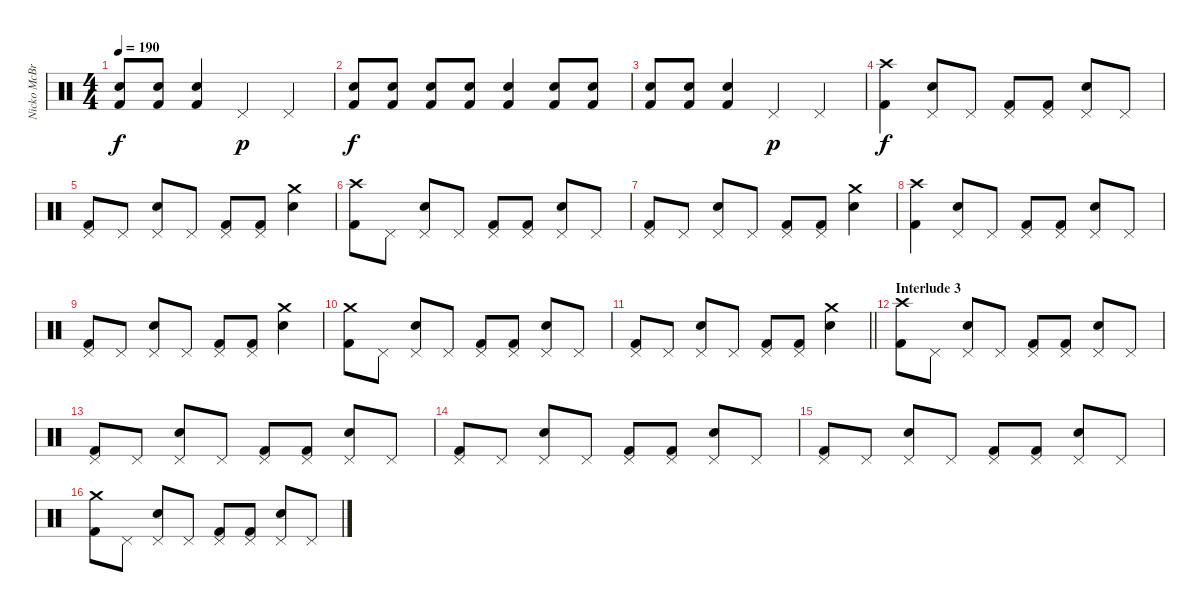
\track ("Nicko McBrain" "Nicko McBr") {instrument percussion}
\staff {score}
\articulation defaults
\ts (4 4)
\tempo 190
\clef neutral
\ks c
("Electric Snare (hit)" "Kick (hit) 2").8{dy f} ("Electric Snare (hit)" "Kick (hit) 2").8 ("Electric Snare (hit)" "Kick (hit) 2").4 "Pedal Hi-Hat (hit)".4{dy p} "Pedal Hi-Hat (hit)".4 |
("Electric Snare (hit)" "Kick (hit) 2").8{dy f} ("Electric Snare (hit)" "Kick (hit) 2").8 ("Electric Snare (hit)" "Kick (hit) 2").8 ("Electric Snare (hit)" "Kick (hit) 2").8 ("Electric Snare (hit)" "Kick (hit) 2").4 ("Electric Snare (hit)" "Kick (hit) 2").8 ("Electric Snare (hit)" "Kick (hit) 2").8 |
("Electric Snare (hit)" "Kick (hit) 2").8 ("Electric Snare (hit)" "Kick (hit) 2").8 ("Electric Snare (hit)" "Kick (hit) 2").4 "Pedal Hi-Hat (hit)".4{dy p} "Pedal Hi-Hat (hit)".4 |
("Crash high (hit)" "Kick (hit) 2").4{dy f} ("Pedal Hi-Hat (hit)" "Electric Snare (hit)").8 "Pedal Hi-Hat (hit)".8 ("Pedal Hi-Hat (hit)" "Kick (hit) 2").8 ("Pedal Hi-Hat (hit)" "Kick (hit) 2").8 ("Pedal Hi-Hat (hit)" "Electric Snare (hit)").8 "Pedal Hi-Hat (hit)".8 |
("Pedal Hi-Hat (hit)" "Kick (hit) 2").8 "Pedal Hi-Hat (hit)".8 ("Pedal Hi-Hat (hit)" "Electric Snare (hit)").8 "Pedal Hi-Hat (hit)".8 ("Pedal Hi-Hat (hit)" "Kick (hit) 2").8 ("Pedal Hi-Hat (hit)" "Kick (hit) 2").8 ("Crash medium (hit)" "Electric Snare (hit)").4 |
("Crash high (hit)" "Kick (hit) 2").8 "Pedal Hi-Hat (hit)".8 ("Pedal Hi-Hat (hit)" "Electric Snare (hit)").8 "Pedal Hi-Hat (hit)".8 ("Pedal Hi-Hat (hit)" "Kick (hit) 2").8 ("Pedal Hi-Hat (hit)" "Kick (hit) 2").8 ("Pedal Hi-Hat (hit)" "Electric Snare (hit)").8 "Pedal Hi-Hat (hit)".8 |
("Pedal Hi-Hat (hit)" "Kick (hit) 2").8 "Pedal Hi-Hat (hit)".8 ("Pedal Hi-Hat (hit)" "Electric Snare (hit)").8 "Pedal Hi-Hat (hit)".8 ("Pedal Hi-Hat (hit)" "Kick (hit) 2").8 ("Pedal Hi-Hat (hit)" "Kick (hit) 2").8 ("Crash medium (hit)" "Electric Snare (hit)").4 |
("Crash high (hit)" "Kick (hit) 2").4 ("Pedal Hi-Hat (hit)" "Electric Snare (hit)").8 "Pedal Hi-Hat (hit)".8 ("Pedal Hi-Hat (hit)" "Kick (hit) 2").8 ("Pedal Hi-Hat (hit)" "Kick (hit) 2").8 ("Pedal Hi-Hat (hit)" "Electric Snare (hit)").8 "Pedal Hi-Hat (hit)".8 |
("Pedal Hi-Hat (hit)" "Kick (hit) 2").8 "Pedal Hi-Hat (hit)".8 ("Pedal Hi-Hat (hit)" "Electric Snare (hit)").8 "Pedal Hi-Hat (hit)".8 ("Pedal Hi-Hat (hit)" "Kick (hit) 2").8 ("Pedal Hi-Hat (hit)" "Kick (hit) 2").8 ("Crash medium (hit)" "Electric Snare (hit)").4 |
("Crash medium (hit)" "Kick (hit) 2").8 "Pedal Hi-Hat (hit)".8 ("Pedal Hi-Hat (hit)" "Electric Snare (hit)").8 "Pedal Hi-Hat (hit)".8 ("Pedal Hi-Hat (hit)" "Kick (hit) 2").8 ("Pedal Hi-Hat (hit)" "Kick (hit) 2").8 ("Pedal Hi-Hat (hit)" "Electric Snare (hit)").8 "Pedal Hi-Hat (hit)".8 |
\barLineRight lightlight
("Pedal Hi-Hat (hit)" "Kick (hit) 2").8 "Pedal Hi-Hat (hit)".8 ("Pedal Hi-Hat (hit)" "Electric Snare (hit)").8 "Pedal Hi-Hat (hit)".8 ("Pedal Hi-Hat (hit)" "Kick (hit) 2").8 ("Pedal Hi-Hat (hit)" "Kick (hit) 2").8 ("Crash medium (hit)" "Electric Snare (hit)").4 |
\section ("" "Interlude 3")
("Crash high (hit)" "Kick (hit) 2").8 "Pedal Hi-Hat (hit)".8 ("Pedal Hi-Hat (hit)" "Electric Snare (hit)").8 "Pedal Hi-Hat (hit)".8 ("Pedal Hi-Hat (hit)" "Kick (hit) 2").8 ("Pedal Hi-Hat (hit)" "Kick (hit) 2").8 ("Pedal Hi-Hat (hit)" "Electric Snare (hit)").8 "Pedal Hi-Hat (hit)".8 |
("Pedal Hi-Hat (hit)" "Kick (hit) 2").8 "Pedal Hi-Hat (hit)".8 ("Pedal Hi-Hat (hit)" "Electric Snare (hit)").8 "Pedal Hi-Hat (hit)".8 ("Pedal Hi-Hat (hit)" "Kick (hit) 2").8 ("Pedal Hi-Hat (hit)" "Kick (hit) 2").8 ("Pedal Hi-Hat (hit)" "Electric Snare (hit)").8 "Pedal Hi-Hat (hit)".8 |
("Pedal Hi-Hat (hit)" "Kick (hit) 2").8 "Pedal Hi-Hat (hit)".8 ("Pedal Hi-Hat (hit)" "Electric Snare (hit)").8 "Pedal Hi-Hat (hit)".8 ("Pedal Hi-Hat (hit)" "Kick (hit) 2").8 ("Pedal Hi-Hat (hit)" "Kick (hit) 2").8 ("Pedal Hi-Hat (hit)" "Electric Snare (hit)").8 "Pedal Hi-Hat (hit)".8 |
("Pedal Hi-Hat (hit)" "Kick (hit) 2").8 "Pedal Hi-Hat (hit)".8 ("Pedal Hi-Hat (hit)" "Electric Snare (hit)").8 "Pedal Hi-Hat (hit)".8 ("Pedal Hi-Hat (hit)" "Kick (hit) 2").8 ("Pedal Hi-Hat (hit)" "Kick (hit) 2").8 ("Pedal Hi-Hat (hit)" "Electric Snare (hit)").8 "Pedal Hi-Hat (hit)".8 |
("Crash medium (hit)" "Kick (hit) 2").8 "Pedal Hi-Hat (hit)".8 ("Pedal Hi-Hat (hit)" "Electric Snare (hit)").8 "Pedal Hi-Hat (hit)".8 ("Pedal Hi-Hat (hit)" "Kick (hit) 2").8 ("Pedal Hi-Hat (hit)" "Kick (hit) 2").8 ("Pedal Hi-Hat (hit)" "Electric Snare (hit)").8 "Pedal Hi-Hat (hit)".8
